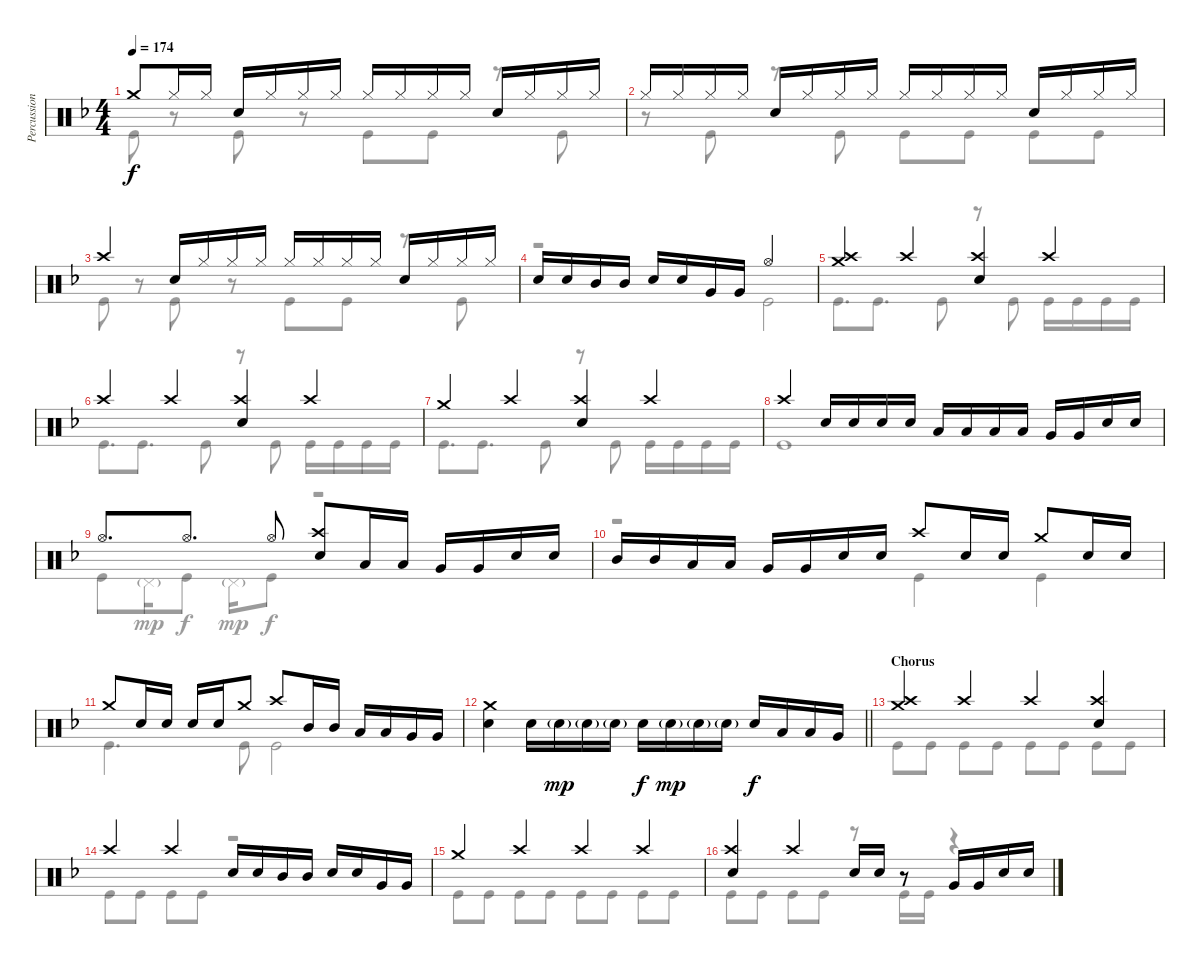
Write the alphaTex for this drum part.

\track ("Percussion" "Percussion") {instrument percussion}
\staff {score}
\articulation defaults
\voice
\ts (4 4)
\tempo 174
\clef neutral
\ks dminor "Crash medium (hit)".8{dy f} "Hi-Hat (closed)".16 "Hi-Hat (closed)".16 "Electric Snare (hit)".16 "Hi-Hat (closed)".16 "Hi-Hat (closed)".16 "Hi-Hat (closed)".16 "Hi-Hat (closed)".16 "Hi-Hat (closed)".16 "Hi-Hat (closed)".16 "Hi-Hat (closed)".16 "Electric Snare (hit)".16 "Hi-Hat (closed)".16 "Hi-Hat (closed)".16 "Hi-Hat (closed)".16
|
"Hi-Hat (closed)".16 "Hi-Hat (closed)".16 "Hi-Hat (closed)".16 "Hi-Hat (closed)".16 "Electric Snare (hit)".16 "Hi-Hat (closed)".16 "Hi-Hat (closed)".16 "Hi-Hat (closed)".16 "Hi-Hat (closed)".16 "Hi-Hat (closed)".16 "Hi-Hat (closed)".16 "Hi-Hat (closed)".16 "Electric Snare (hit)".16 "Hi-Hat (closed)".16 "Hi-Hat (closed)".16 "Hi-Hat (closed)".16 |
"Crash high (hit)".4 "Electric Snare (hit)".16 "Hi-Hat (closed)".16 "Hi-Hat (closed)".16 "Hi-Hat (closed)".16 "Hi-Hat (closed)".16 "Hi-Hat (closed)".16 "Hi-Hat (closed)".16 "Hi-Hat (closed)".16 "Electric Snare (hit)".16 "Hi-Hat (closed)".16 "Hi-Hat (closed)".16 "Hi-Hat (closed)".16 |
"Electric Snare (hit)".16 "Electric Snare (hit)".16 "Mid Tom (hit)".16 "Mid Tom (hit)".16 "Electric Snare (hit)".16 "Electric Snare (hit)".16 "Very Low Tom (hit)".16 "Very Low Tom (hit)".16 "Hi-Hat (open)".2 |
("Crash medium (hit)" "Crash high (hit)").4 "Crash high (hit)".4 ("Crash high (hit)" "Electric Snare (hit)").4 "Crash high (hit)".4 |
"Crash high (hit)".4 "Crash high (hit)".4 ("Crash high (hit)" "Electric Snare (hit)").4 "Crash high (hit)".4 |
"Crash medium (hit)".4 "Crash high (hit)".4 ("Crash high (hit)" "Electric Snare (hit)").4 "Crash high (hit)".4 |
"Crash high (hit)".4 "Electric Snare (hit)".16 "Electric Snare (hit)".16 "Electric Snare (hit)".16 "Electric Snare (hit)".16 "Low Tom (hit)".16 "Low Tom (hit)".16 "Low Tom (hit)".16 "Low Tom (hit)".16 "Very Low Tom (hit)".16 "Very Low Tom (hit)".16 "Electric Snare (hit)".16 "Electric Snare (hit)".16 |
"Hi-Hat (open)".8{d} "Hi-Hat (open)".8{d} "Hi-Hat (open)".8 ("Crash high (hit)" "Electric Snare (hit)").8 "Low Tom (hit)".16 "Low Tom (hit)".16 "Very Low Tom (hit)".16 "Very Low Tom (hit)".16 "Electric Snare (hit)".16 "Electric Snare (hit)".16 |
"Mid Tom (hit)".16 "Mid Tom (hit)".16 "Low Tom (hit)".16 "Low Tom (hit)".16 "Very Low Tom (hit)".16 "Very Low Tom (hit)".16 "Electric Snare (hit)".16 "Electric Snare (hit)".16 "Crash high (hit)".8 "Electric Snare (hit)".16 "Electric Snare (hit)".16 "Crash medium (hit)".8 "Electric Snare (hit)".16 "Electric Snare (hit)".16 |
"Crash medium (hit)".8 "Electric Snare (hit)".16 "Electric Snare (hit)".16 "Electric Snare (hit)".16 "Electric Snare (hit)".16 "Crash medium (hit)".8 "Crash high (hit)".8 "Mid Tom (hit)".16 "Mid Tom (hit)".16 "Low Tom (hit)".16 "Low Tom (hit)".16 "Very Low Tom (hit)".16 "Very Low Tom (hit)".16 |
\barLineRight lightlight
("Crash medium (hit)" "Electric Snare (hit)").4 "Electric Snare (hit)".16 "Electric Snare (hit)"{g}.16{dy mp} "Electric Snare (hit)"{g}.16 "Electric Snare (hit)"{g}.16 "Electric Snare (hit)".16{dy f} "Electric Snare (hit)"{g}.16{dy mp} "Electric Snare (hit)"{g}.16 "Electric Snare (hit)"{g}.16 "Electric Snare (hit)".16{dy f} "Low Tom (hit)".16 "Low Tom (hit)".16 "Very Low Tom (hit)".16 |
\section ("" "Chorus")
("Crash medium (hit)" "Crash high (hit)").4 "Crash high (hit)".4 "Crash high (hit)".4 ("Crash high (hit)" "Electric Snare (hit)").4 |
"Crash high (hit)".4 "Crash high (hit)".4 "Electric Snare (hit)".16 "Electric Snare (hit)".16 "Mid Tom (hit)".16 "Mid Tom (hit)".16 "Electric Snare (hit)".16 "Electric Snare (hit)".16 "Very Low Tom (hit)".16 "Very Low Tom (hit)".16 |
"Crash medium (hit)".4 "Crash high (hit)".4 "Crash high (hit)".4 "Crash high (hit)".4 |
("Crash high (hit)" "Electric Snare (hit)").4 "Crash high (hit)".4 "Electric Snare (hit)".16 "Electric Snare (hit)".16 r.8 "Very Low Tom (hit)".16 "Very Low Tom (hit)".16 "Electric Snare (hit)".16 "Electric Snare (hit)".16
\voice
\clef neutral
\ottava regular
\simile none
\ks dminor "Kick (hit)".8{dy f}
r.8 "Kick (hit)".8 r.8 "Kick (hit)".8 "Kick (hit)".8 r.8 "Kick (hit)".8 |
r.8 "Kick (hit)".8 r.8 "Kick (hit)".8 "Kick (hit)".8 "Kick (hit)".8 "Kick (hit)".8 "Kick (hit)".8 |
"Kick (hit)".8 r.8 "Kick (hit)".8 r.8 "Kick (hit)".8 "Kick (hit)".8 r.8 "Kick (hit)".8 |
r.2 "Kick (hit)".2 |
"Kick (hit)".8{d} "Kick (hit)".8{d} "Kick (hit)".8 r.8 "Kick (hit)".8 "Kick (hit)".16 "Kick (hit)".16 "Kick (hit)".16 "Kick (hit)".16 |
"Kick (hit)".8{d} "Kick (hit)".8{d} "Kick (hit)".8 r.8 "Kick (hit)".8 "Kick (hit)".16 "Kick (hit)".16 "Kick (hit)".16 "Kick (hit)".16 |
"Kick (hit)".8{d} "Kick (hit)".8{d} "Kick (hit)".8 r.8 "Kick (hit)".8 "Kick (hit)".16 "Kick (hit)".16 "Kick (hit)".16 "Kick (hit)".16 |
"Kick (hit)".1 |
"Kick (hit)".8 "Pedal Hi-Hat (hit)"{g}.16{dy mp} "Kick (hit)".8{dy f} "Pedal Hi-Hat (hit)"{g}.16{dy mp} "Kick (hit)".8{dy f} r.2 |
r.2 "Kick (hit)".4 "Kick (hit)".4 |
"Kick (hit)".4{d} "Kick (hit)".8 "Kick (hit)".2 |
\barLineRight lightlight
|
"Kick (hit)".8 "Kick (hit)".8 "Kick (hit)".8 "Kick (hit)".8 "Kick (hit)".8 "Kick (hit)".8 "Kick (hit)".8 "Kick (hit)".8 |
"Kick (hit)".8 "Kick (hit)".8 "Kick (hit)".8 "Kick (hit)".8 r.2 |
"Kick (hit)".8 "Kick (hit)".8 "Kick (hit)".8 "Kick (hit)".8 "Kick (hit)".8 "Kick (hit)".8 "Kick (hit)".8 "Kick (hit)".8 |
"Kick (hit)".8 "Kick (hit)".8 "Kick (hit)".8 "Kick (hit)".8 r.8 "Kick (hit)".16 "Kick (hit)".16 r.4
